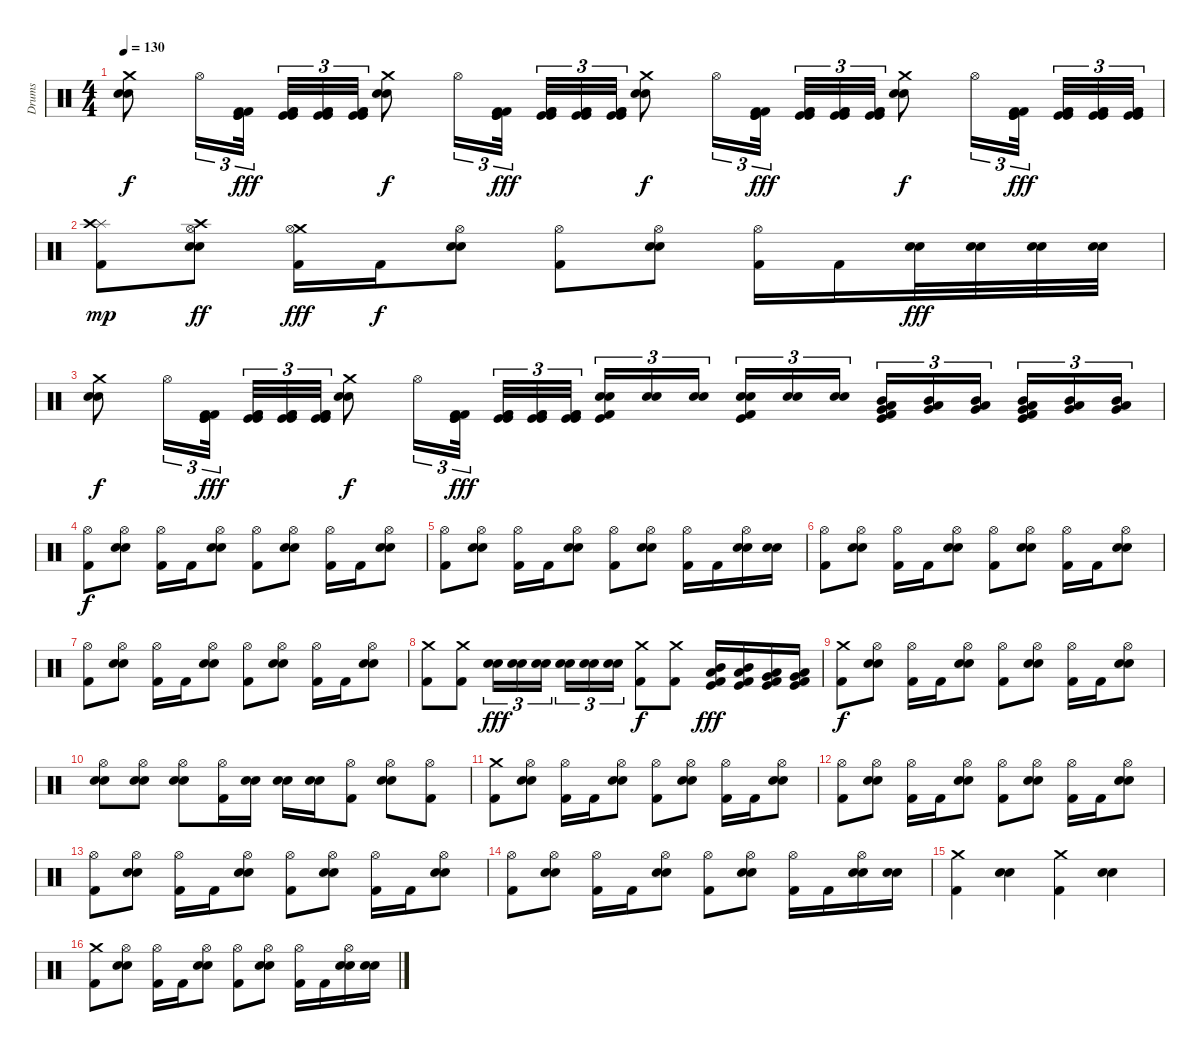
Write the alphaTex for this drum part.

\track ("Drums" "Drums") {instrument percussion}
\staff {score}
\articulation defaults
\ts (4 4)
\tempo 130
\clef neutral
\ks c
("Crash medium (hit)" "Snare (hit) 2" "Electric Snare (hit)").8{dy f} "Hi-Hat (open)".16{tu (3 2)} ("Kick (hit)" "Kick (hit) 2" "Kick (hit)" "Kick (hit) 2").32{tu (3 2) dy fff} ("Kick (hit)" "Kick (hit) 2" "Kick (hit)" "Kick (hit) 2").32{tu (3 2)} ("Kick (hit)" "Kick (hit) 2" "Kick (hit)" "Kick (hit) 2").32{tu (3 2)} ("Kick (hit)" "Kick (hit) 2" "Kick (hit)" "Kick (hit) 2").32{tu (3 2)} ("Crash medium (hit)" "Snare (hit) 2" "Electric Snare (hit)").8{dy f} "Hi-Hat (open)".16{tu (3 2)} ("Kick (hit)" "Kick (hit) 2" "Kick (hit)" "Kick (hit) 2").32{tu (3 2) dy fff} ("Kick (hit)" "Kick (hit) 2" "Kick (hit)" "Kick (hit) 2").32{tu (3 2)} ("Kick (hit)" "Kick (hit) 2" "Kick (hit)" "Kick (hit) 2").32{tu (3 2)} ("Kick (hit)" "Kick (hit) 2" "Kick (hit)" "Kick (hit) 2").32{tu (3 2)} ("Crash medium (hit)" "Snare (hit) 2" "Electric Snare (hit)").8{dy f} "Hi-Hat (open)".16{tu (3 2)} ("Kick (hit)" "Kick (hit) 2" "Kick (hit)" "Kick (hit) 2").32{tu (3 2) dy fff} ("Kick (hit)" "Kick (hit) 2" "Kick (hit)" "Kick (hit) 2").32{tu (3 2)} ("Kick (hit)" "Kick (hit) 2" "Kick (hit)" "Kick (hit) 2").32{tu (3 2)} ("Kick (hit)" "Kick (hit) 2" "Kick (hit)" "Kick (hit) 2").32{tu (3 2)} ("Crash medium (hit)" "Snare (hit) 2" "Electric Snare (hit)").8{dy f} "Hi-Hat (open)".16{tu (3 2)} ("Kick (hit)" "Kick (hit) 2" "Kick (hit)" "Kick (hit) 2").32{tu (3 2) dy fff} ("Kick (hit)" "Kick (hit) 2" "Kick (hit)" "Kick (hit) 2").32{tu (3 2)} ("Kick (hit)" "Kick (hit) 2" "Kick (hit)" "Kick (hit) 2").32{tu (3 2)} ("Kick (hit)" "Kick (hit) 2" "Kick (hit)" "Kick (hit) 2").32{tu (3 2)} |
("Splash (hit)" "Crash high (hit)" "Kick (hit) 2").8{dy mp} ("Crash high (hit)" "Hi-Hat (open)" "Snare (hit) 2" "Electric Snare (hit)").8{dy ff} ("Crash medium (hit)" "Hi-Hat (open)" "Kick (hit) 2").16{dy fff} "Kick (hit) 2".16{dy f} ("Hi-Hat (open)" "Snare (hit) 2" "Electric Snare (hit)").8 ("Hi-Hat (open)" "Kick (hit) 2").8 ("Hi-Hat (open)" "Snare (hit) 2" "Electric Snare (hit)").8 ("Hi-Hat (open)" "Kick (hit) 2").16 "Kick (hit) 2".16 ("Snare (hit) 2" "Electric Snare (hit)").32{dy fff} ("Snare (hit) 2" "Electric Snare (hit)").32 ("Snare (hit) 2" "Electric Snare (hit)").32 ("Snare (hit) 2" "Electric Snare (hit)").32 |
("Crash medium (hit)" "Snare (hit) 2" "Electric Snare (hit)").8{dy f} "Hi-Hat (open)".16{tu (3 2)} ("Kick (hit)" "Kick (hit) 2" "Kick (hit)" "Kick (hit) 2").32{tu (3 2) dy fff} ("Kick (hit)" "Kick (hit) 2" "Kick (hit)" "Kick (hit) 2").32{tu (3 2)} ("Kick (hit)" "Kick (hit) 2" "Kick (hit)" "Kick (hit) 2").32{tu (3 2)} ("Kick (hit)" "Kick (hit) 2" "Kick (hit)" "Kick (hit) 2").32{tu (3 2)} ("Crash medium (hit)" "Snare (hit) 2" "Electric Snare (hit)").8{dy f} "Hi-Hat (open)".16{tu (3 2)} ("Kick (hit)" "Kick (hit) 2" "Kick (hit)" "Kick (hit) 2").32{tu (3 2) dy fff} ("Kick (hit)" "Kick (hit) 2" "Kick (hit)" "Kick (hit) 2").32{tu (3 2)} ("Kick (hit)" "Kick (hit) 2" "Kick (hit)" "Kick (hit) 2").32{tu (3 2)} ("Kick (hit)" "Kick (hit) 2" "Kick (hit)" "Kick (hit) 2").32{tu (3 2)} ("Snare (hit) 2" "Electric Snare (hit)" "Kick (hit)" "Kick (hit) 2").16{tu (3 2)} ("Snare (hit) 2" "Electric Snare (hit)").16{tu (3 2)} ("Snare (hit) 2" "Electric Snare (hit)").16{tu (3 2)} ("Snare (hit) 2" "Electric Snare (hit)" "Kick (hit)" "Kick (hit) 2").16{tu (3 2)} ("Snare (hit) 2" "Electric Snare (hit)").16{tu (3 2)} ("Snare (hit) 2" "Electric Snare (hit)").16{tu (3 2)} ("Mid Tom (hit)" "Low Tom (hit)" "Very Low Tom (hit)" "Kick (hit)" "Kick (hit) 2").16{tu (3 2)} ("Mid Tom (hit)" "Low Tom (hit)" "Very Low Tom (hit)").16{tu (3 2)} ("Mid Tom (hit)" "Low Tom (hit)" "Very Low Tom (hit)").16{tu (3 2)} ("Mid Tom (hit)" "Low Tom (hit)" "Very Low Tom (hit)" "Kick (hit)" "Kick (hit) 2").16{tu (3 2)} ("Mid Tom (hit)" "Low Tom (hit)" "Very Low Tom (hit)").16{tu (3 2)} ("Mid Tom (hit)" "Low Tom (hit)" "Very Low Tom (hit)").16{tu (3 2)} |
("Hi-Hat (open)" "Kick (hit) 2").8{dy f} ("Hi-Hat (open)" "Snare (hit) 2" "Electric Snare (hit)").8 ("Hi-Hat (open)" "Kick (hit) 2").16 "Kick (hit) 2".16 ("Hi-Hat (open)" "Snare (hit) 2" "Electric Snare (hit)").8 ("Hi-Hat (open)" "Kick (hit) 2").8 ("Hi-Hat (open)" "Snare (hit) 2" "Electric Snare (hit)").8 ("Hi-Hat (open)" "Kick (hit) 2").16 "Kick (hit) 2".16 ("Hi-Hat (open)" "Snare (hit) 2" "Electric Snare (hit)").8 |
("Hi-Hat (open)" "Kick (hit) 2").8 ("Hi-Hat (open)" "Snare (hit) 2" "Electric Snare (hit)").8 ("Hi-Hat (open)" "Kick (hit) 2").16 "Kick (hit) 2".16 ("Hi-Hat (open)" "Snare (hit) 2" "Electric Snare (hit)").8 ("Hi-Hat (open)" "Kick (hit) 2").8 ("Hi-Hat (open)" "Snare (hit) 2" "Electric Snare (hit)").8 ("Hi-Hat (open)" "Kick (hit) 2").16 "Kick (hit) 2".16 ("Hi-Hat (open)" "Snare (hit) 2" "Electric Snare (hit)").16 ("Snare (hit) 2" "Electric Snare (hit)").16 |
("Hi-Hat (open)" "Kick (hit) 2").8 ("Hi-Hat (open)" "Snare (hit) 2" "Electric Snare (hit)").8 ("Hi-Hat (open)" "Kick (hit) 2").16 "Kick (hit) 2".16 ("Hi-Hat (open)" "Snare (hit) 2" "Electric Snare (hit)").8 ("Hi-Hat (open)" "Kick (hit) 2").8 ("Hi-Hat (open)" "Snare (hit) 2" "Electric Snare (hit)").8 ("Hi-Hat (open)" "Kick (hit) 2").16 "Kick (hit) 2".16 ("Hi-Hat (open)" "Snare (hit) 2" "Electric Snare (hit)").8 |
("Hi-Hat (open)" "Kick (hit) 2").8 ("Hi-Hat (open)" "Snare (hit) 2" "Electric Snare (hit)").8 ("Hi-Hat (open)" "Kick (hit) 2").16 "Kick (hit) 2".16 ("Hi-Hat (open)" "Snare (hit) 2" "Electric Snare (hit)").8 ("Hi-Hat (open)" "Kick (hit) 2").8 ("Hi-Hat (open)" "Snare (hit) 2" "Electric Snare (hit)").8 ("Hi-Hat (open)" "Kick (hit) 2").16 "Kick (hit) 2".16 ("Hi-Hat (open)" "Snare (hit) 2" "Electric Snare (hit)").8 |
("Crash medium (hit)" "Kick (hit) 2").8 ("Crash medium (hit)" "Kick (hit) 2").8 ("Snare (hit) 2" "Electric Snare (hit)").16{tu (3 2) dy fff} ("Snare (hit) 2" "Electric Snare (hit)").16{tu (3 2)} ("Snare (hit) 2" "Electric Snare (hit)").16{tu (3 2)} ("Snare (hit) 2" "Electric Snare (hit)").16{tu (3 2)} ("Snare (hit) 2" "Electric Snare (hit)").16{tu (3 2)} ("Snare (hit) 2" "Electric Snare (hit)").16{tu (3 2)} ("Crash medium (hit)" "Kick (hit) 2").8{dy f} ("Crash medium (hit)" "Kick (hit) 2").8 ("Mid Tom (hit)" "Low Tom (hit)" "Kick (hit)" "Kick (hit) 2").16{dy fff} ("Mid Tom (hit)" "Low Tom (hit)" "Kick (hit)" "Kick (hit) 2").16 ("Low Tom (hit)" "Very Low Tom (hit)" "Kick (hit)" "Kick (hit) 2").16 ("Low Tom (hit)" "Very Low Tom (hit)" "Kick (hit)" "Kick (hit) 2").16 |
("Crash medium (hit)" "Kick (hit) 2").8{dy f} ("Hi-Hat (open)" "Snare (hit) 2" "Electric Snare (hit)").8 ("Hi-Hat (open)" "Kick (hit) 2").16 "Kick (hit) 2".16 ("Hi-Hat (open)" "Snare (hit) 2" "Electric Snare (hit)").8 ("Hi-Hat (open)" "Kick (hit) 2").8 ("Hi-Hat (open)" "Snare (hit) 2" "Electric Snare (hit)").8 ("Hi-Hat (open)" "Kick (hit) 2").16 "Kick (hit) 2".16 ("Hi-Hat (open)" "Snare (hit) 2" "Electric Snare (hit)").8 |
("Hi-Hat (open)" "Snare (hit) 2" "Electric Snare (hit)").8 ("Hi-Hat (open)" "Snare (hit) 2" "Electric Snare (hit)").8 ("Hi-Hat (open)" "Snare (hit) 2" "Electric Snare (hit)").8 ("Hi-Hat (open)" "Kick (hit) 2").16 ("Snare (hit) 2" "Electric Snare (hit)").16 ("Snare (hit) 2" "Electric Snare (hit)").16 ("Snare (hit) 2" "Electric Snare (hit)").16 ("Hi-Hat (open)" "Kick (hit) 2").8 ("Hi-Hat (open)" "Snare (hit) 2" "Electric Snare (hit)").8 ("Hi-Hat (open)" "Kick (hit) 2").8 |
("Crash medium (hit)" "Kick (hit) 2").8 ("Hi-Hat (open)" "Snare (hit) 2" "Electric Snare (hit)").8 ("Hi-Hat (open)" "Kick (hit) 2").16 "Kick (hit) 2".16 ("Hi-Hat (open)" "Snare (hit) 2" "Electric Snare (hit)").8 ("Hi-Hat (open)" "Kick (hit) 2").8 ("Hi-Hat (open)" "Snare (hit) 2" "Electric Snare (hit)").8 ("Hi-Hat (open)" "Kick (hit) 2").16 "Kick (hit) 2".16 ("Hi-Hat (open)" "Snare (hit) 2" "Electric Snare (hit)").8 |
("Hi-Hat (open)" "Kick (hit) 2").8 ("Hi-Hat (open)" "Snare (hit) 2" "Electric Snare (hit)").8 ("Hi-Hat (open)" "Kick (hit) 2").16 "Kick (hit) 2".16 ("Hi-Hat (open)" "Snare (hit) 2" "Electric Snare (hit)").8 ("Hi-Hat (open)" "Kick (hit) 2").8 ("Hi-Hat (open)" "Snare (hit) 2" "Electric Snare (hit)").8 ("Hi-Hat (open)" "Kick (hit) 2").16 "Kick (hit) 2".16 ("Hi-Hat (open)" "Snare (hit) 2" "Electric Snare (hit)").8 |
("Hi-Hat (open)" "Kick (hit) 2").8 ("Hi-Hat (open)" "Snare (hit) 2" "Electric Snare (hit)").8 ("Hi-Hat (open)" "Kick (hit) 2").16 "Kick (hit) 2".16 ("Hi-Hat (open)" "Snare (hit) 2" "Electric Snare (hit)").8 ("Hi-Hat (open)" "Kick (hit) 2").8 ("Hi-Hat (open)" "Snare (hit) 2" "Electric Snare (hit)").8 ("Hi-Hat (open)" "Kick (hit) 2").16 "Kick (hit) 2".16 ("Hi-Hat (open)" "Snare (hit) 2" "Electric Snare (hit)").8 |
("Hi-Hat (open)" "Kick (hit) 2").8 ("Hi-Hat (open)" "Snare (hit) 2" "Electric Snare (hit)").8 ("Hi-Hat (open)" "Kick (hit) 2").16 "Kick (hit) 2".16 ("Hi-Hat (open)" "Snare (hit) 2" "Electric Snare (hit)").8 ("Hi-Hat (open)" "Kick (hit) 2").8 ("Hi-Hat (open)" "Snare (hit) 2" "Electric Snare (hit)").8 ("Hi-Hat (open)" "Kick (hit) 2").16 "Kick (hit) 2".16 ("Hi-Hat (open)" "Snare (hit) 2" "Electric Snare (hit)").16 ("Snare (hit) 2" "Electric Snare (hit)").16 |
("Crash medium (hit)" "Kick (hit) 2").4 ("Snare (hit) 2" "Electric Snare (hit)").4 ("Crash medium (hit)" "Kick (hit) 2").4 ("Snare (hit) 2" "Electric Snare (hit)").4 |
("Crash medium (hit)" "Kick (hit) 2").8 ("Hi-Hat (open)" "Snare (hit) 2" "Electric Snare (hit)").8 ("Hi-Hat (open)" "Kick (hit) 2").16 "Kick (hit) 2".16 ("Hi-Hat (open)" "Snare (hit) 2" "Electric Snare (hit)").8 ("Hi-Hat (open)" "Kick (hit) 2").8 ("Hi-Hat (open)" "Snare (hit) 2" "Electric Snare (hit)").8 ("Hi-Hat (open)" "Kick (hit) 2").16 "Kick (hit) 2".16 ("Hi-Hat (open)" "Snare (hit) 2" "Electric Snare (hit)").16 ("Snare (hit) 2" "Electric Snare (hit)").16
